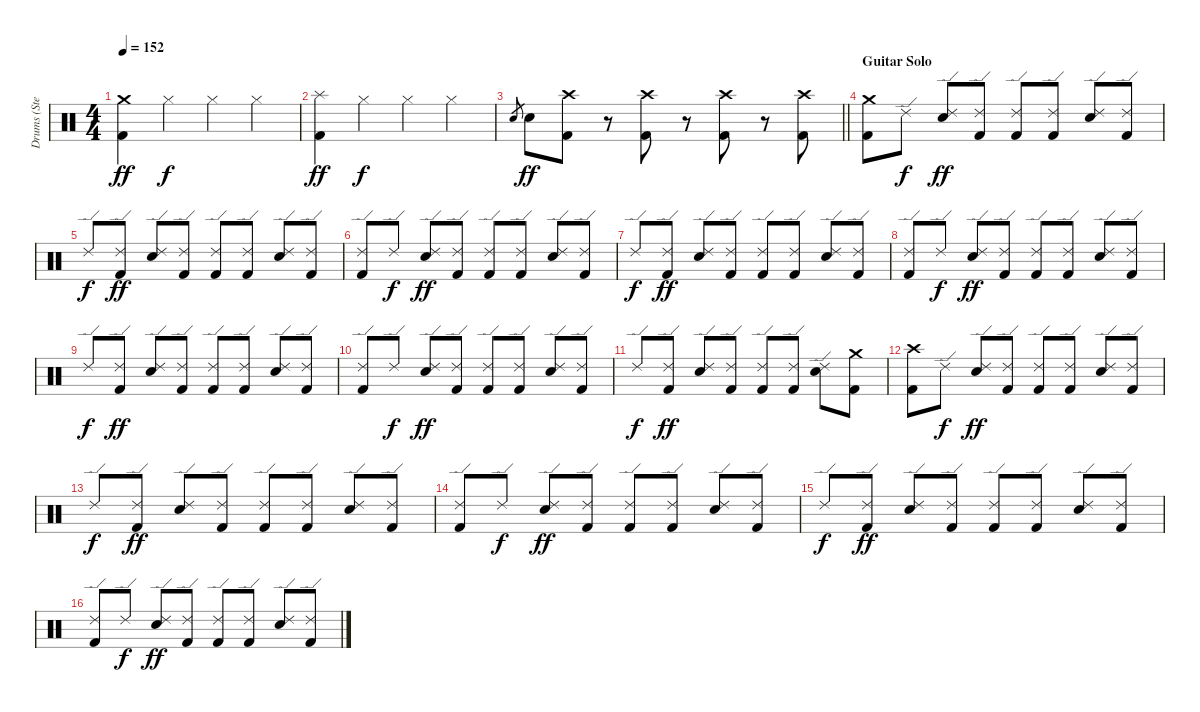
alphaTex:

\track ("Drums (Steven)" "Drums (Ste") {instrument percussion}
\staff {score}
\articulation defaults
\ts (4 4)
\tempo 152
\clef neutral
\ks c
("Crash medium (hit)" "Kick (hit) 2").4{dy ff} "Hi-Hat (closed)".4{dy f} "Hi-Hat (closed)".4 "Hi-Hat (closed)".4 |
("Splash (hit)" "Kick (hit) 2").4{dy ff} "Hi-Hat (closed)".4{dy f} "Hi-Hat (closed)".4 "Hi-Hat (closed)".4 |
\barLineRight lightlight "Snare (hit) 2".8{gr} "Snare (hit) 2".8{dy ff}
("Crash high (hit)" "Kick (hit) 2").8 r.8{volume 0} ("Crash high (hit)" "Kick (hit) 2").8{volume 16} r.8{volume 0} ("Crash high (hit)" "Kick (hit) 2").8{volume 16} r.8{volume 0} ("Crash high (hit)" "Kick (hit) 2").8{volume 16} |
\section ("" "Guitar Solo")
("Crash medium (hit)" "Kick (hit) 2").8 "Ride (edge) 2".8{dy f} ("Ride (edge) 2" "Snare (hit) 2").8{dy ff} ("Ride (edge) 2" "Kick (hit) 2").8 ("Ride (edge) 2" "Kick (hit) 2").8 ("Ride (edge) 2" "Kick (hit) 2").8 ("Ride (edge) 2" "Snare (hit) 2").8 ("Ride (edge) 2" "Kick (hit) 2").8 |
"Ride (edge) 2".8{dy f} ("Ride (edge) 2" "Kick (hit) 2").8{dy ff} ("Ride (edge) 2" "Snare (hit) 2").8 ("Ride (edge) 2" "Kick (hit) 2").8 ("Ride (edge) 2" "Kick (hit) 2").8 ("Ride (edge) 2" "Kick (hit) 2").8 ("Ride (edge) 2" "Snare (hit) 2").8 ("Ride (edge) 2" "Kick (hit) 2").8 |
("Ride (edge) 2" "Kick (hit) 2").8 "Ride (edge) 2".8{dy f} ("Ride (edge) 2" "Snare (hit) 2").8{dy ff} ("Ride (edge) 2" "Kick (hit) 2").8 ("Ride (edge) 2" "Kick (hit) 2").8 ("Ride (edge) 2" "Kick (hit) 2").8 ("Ride (edge) 2" "Snare (hit) 2").8 ("Ride (edge) 2" "Kick (hit) 2").8 |
"Ride (edge) 2".8{dy f} ("Ride (edge) 2" "Kick (hit) 2").8{dy ff} ("Ride (edge) 2" "Snare (hit) 2").8 ("Ride (edge) 2" "Kick (hit) 2").8 ("Ride (edge) 2" "Kick (hit) 2").8 ("Ride (edge) 2" "Kick (hit) 2").8 ("Ride (edge) 2" "Snare (hit) 2").8 ("Ride (edge) 2" "Kick (hit) 2").8 |
("Ride (edge) 2" "Kick (hit) 2").8 "Ride (edge) 2".8{dy f} ("Ride (edge) 2" "Snare (hit) 2").8{dy ff} ("Ride (edge) 2" "Kick (hit) 2").8 ("Ride (edge) 2" "Kick (hit) 2").8 ("Ride (edge) 2" "Kick (hit) 2").8 ("Ride (edge) 2" "Snare (hit) 2").8 ("Ride (edge) 2" "Kick (hit) 2").8 |
"Ride (edge) 2".8{dy f} ("Ride (edge) 2" "Kick (hit) 2").8{dy ff} ("Ride (edge) 2" "Snare (hit) 2").8 ("Ride (edge) 2" "Kick (hit) 2").8 ("Ride (edge) 2" "Kick (hit) 2").8 ("Ride (edge) 2" "Kick (hit) 2").8 ("Ride (edge) 2" "Snare (hit) 2").8 ("Ride (edge) 2" "Kick (hit) 2").8 |
("Ride (edge) 2" "Kick (hit) 2").8 "Ride (edge) 2".8{dy f} ("Ride (edge) 2" "Snare (hit) 2").8{dy ff} ("Ride (edge) 2" "Kick (hit) 2").8 ("Ride (edge) 2" "Kick (hit) 2").8 ("Ride (edge) 2" "Kick (hit) 2").8 ("Ride (edge) 2" "Snare (hit) 2").8 ("Ride (edge) 2" "Kick (hit) 2").8 |
"Ride (edge) 2".8{dy f} ("Ride (edge) 2" "Kick (hit) 2").8{dy ff} ("Ride (edge) 2" "Snare (hit) 2").8 ("Ride (edge) 2" "Kick (hit) 2").8 ("Ride (edge) 2" "Kick (hit) 2").8 ("Ride (edge) 2" "Kick (hit) 2").8 ("Ride (edge) 2" "Snare (hit) 2").8 ("Crash medium (hit)" "Kick (hit) 2").8 |
("Crash high (hit)" "Kick (hit) 2").8 "Ride (edge) 2".8{dy f} ("Ride (edge) 2" "Snare (hit) 2").8{dy ff} ("Ride (edge) 2" "Kick (hit) 2").8 ("Ride (edge) 2" "Kick (hit) 2").8 ("Ride (edge) 2" "Kick (hit) 2").8 ("Ride (edge) 2" "Snare (hit) 2").8 ("Ride (edge) 2" "Kick (hit) 2").8 |
"Ride (edge) 2".8{dy f} ("Ride (edge) 2" "Kick (hit) 2").8{dy ff} ("Ride (edge) 2" "Snare (hit) 2").8 ("Ride (edge) 2" "Kick (hit) 2").8 ("Ride (edge) 2" "Kick (hit) 2").8 ("Ride (edge) 2" "Kick (hit) 2").8 ("Ride (edge) 2" "Snare (hit) 2").8 ("Ride (edge) 2" "Kick (hit) 2").8 |
("Ride (edge) 2" "Kick (hit) 2").8 "Ride (edge) 2".8{dy f} ("Ride (edge) 2" "Snare (hit) 2").8{dy ff} ("Ride (edge) 2" "Kick (hit) 2").8 ("Ride (edge) 2" "Kick (hit) 2").8 ("Ride (edge) 2" "Kick (hit) 2").8 ("Ride (edge) 2" "Snare (hit) 2").8 ("Ride (edge) 2" "Kick (hit) 2").8 |
"Ride (edge) 2".8{dy f} ("Ride (edge) 2" "Kick (hit) 2").8{dy ff} ("Ride (edge) 2" "Snare (hit) 2").8 ("Ride (edge) 2" "Kick (hit) 2").8 ("Ride (edge) 2" "Kick (hit) 2").8 ("Ride (edge) 2" "Kick (hit) 2").8 ("Ride (edge) 2" "Snare (hit) 2").8 ("Ride (edge) 2" "Kick (hit) 2").8 |
("Ride (edge) 2" "Kick (hit) 2").8 "Ride (edge) 2".8{dy f} ("Ride (edge) 2" "Snare (hit) 2").8{dy ff} ("Ride (edge) 2" "Kick (hit) 2").8 ("Ride (edge) 2" "Kick (hit) 2").8 ("Ride (edge) 2" "Kick (hit) 2").8 ("Ride (edge) 2" "Snare (hit) 2").8 ("Ride (edge) 2" "Kick (hit) 2").8
